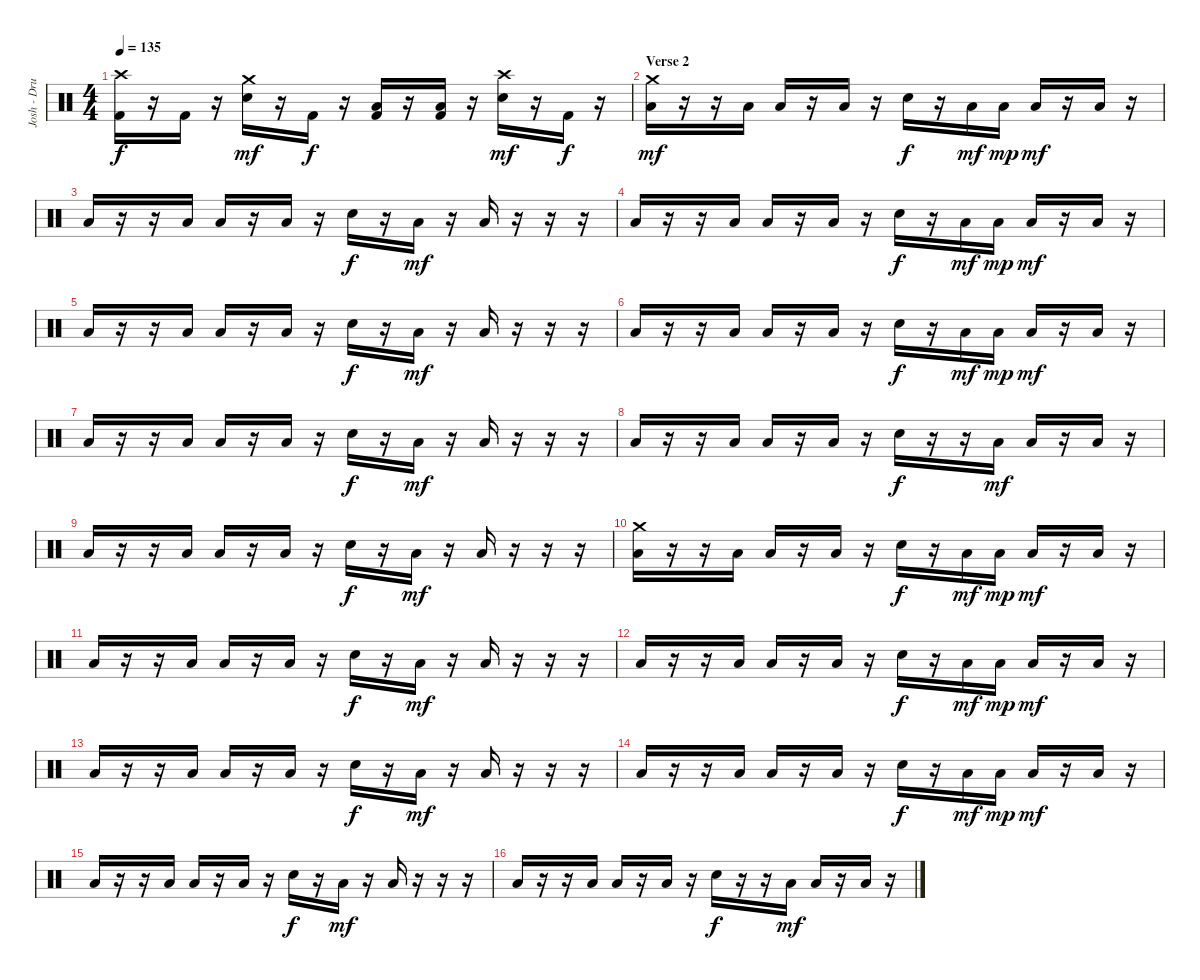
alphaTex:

\track ("Josh - Drums" "Josh - Dru") {instrument percussion}
\staff {score}
\articulation defaults
\ts (4 4)
\tempo 135
\clef neutral
\ks c
("Crash high (hit)" "Kick (hit) 2").16{dy f} r.16 "Kick (hit) 2".16 r.16 ("Crash medium (hit)" "Electric Snare (hit)").16{dy mf} r.16 "Kick (hit) 2".16{dy f} r.16 ("Low Floor Tom (hit)" "Kick (hit) 2").16 r.16 ("Low Floor Tom (hit)" "Kick (hit) 2").16 r.16 ("Crash high (hit)" "Electric Snare (hit)").16{dy mf} r.16 "Kick (hit) 2".16{dy f} r.16 |
\section ("" "Verse 2")
("Crash medium (hit)" "Low Floor Tom (hit)").16{dy mf} r.16 r.16 "Low Floor Tom (hit)".16 "Low Floor Tom (hit)".16 r.16 "Low Floor Tom (hit)".16 r.16 "Electric Snare (hit)".16{dy f} r.16 "Low Floor Tom (hit)".16{dy mf} "Low Floor Tom (hit)".16{dy mp} "Low Floor Tom (hit)".16{dy mf} r.16 "Low Floor Tom (hit)".16 r.16 |
"Low Floor Tom (hit)".16 r.16 r.16 "Low Floor Tom (hit)".16 "Low Floor Tom (hit)".16 r.16 "Low Floor Tom (hit)".16 r.16 "Electric Snare (hit)".16{dy f} r.16 "Low Floor Tom (hit)".16{dy mf} r.16 "Low Floor Tom (hit)".16 r.16 r.16 r.16 |
"Low Floor Tom (hit)".16 r.16 r.16 "Low Floor Tom (hit)".16 "Low Floor Tom (hit)".16 r.16 "Low Floor Tom (hit)".16 r.16 "Electric Snare (hit)".16{dy f} r.16 "Low Floor Tom (hit)".16{dy mf} "Low Floor Tom (hit)".16{dy mp} "Low Floor Tom (hit)".16{dy mf} r.16 "Low Floor Tom (hit)".16 r.16 |
"Low Floor Tom (hit)".16 r.16 r.16 "Low Floor Tom (hit)".16 "Low Floor Tom (hit)".16 r.16 "Low Floor Tom (hit)".16 r.16 "Electric Snare (hit)".16{dy f} r.16 "Low Floor Tom (hit)".16{dy mf} r.16 "Low Floor Tom (hit)".16 r.16 r.16 r.16 |
"Low Floor Tom (hit)".16 r.16 r.16 "Low Floor Tom (hit)".16 "Low Floor Tom (hit)".16 r.16 "Low Floor Tom (hit)".16 r.16 "Electric Snare (hit)".16{dy f} r.16 "Low Floor Tom (hit)".16{dy mf} "Low Floor Tom (hit)".16{dy mp} "Low Floor Tom (hit)".16{dy mf} r.16 "Low Floor Tom (hit)".16 r.16 |
"Low Floor Tom (hit)".16 r.16 r.16 "Low Floor Tom (hit)".16 "Low Floor Tom (hit)".16 r.16 "Low Floor Tom (hit)".16 r.16 "Electric Snare (hit)".16{dy f} r.16 "Low Floor Tom (hit)".16{dy mf} r.16 "Low Floor Tom (hit)".16 r.16 r.16 r.16 |
"Low Floor Tom (hit)".16 r.16 r.16 "Low Floor Tom (hit)".16 "Low Floor Tom (hit)".16 r.16 "Low Floor Tom (hit)".16 r.16 "Electric Snare (hit)".16{dy f} r.16 r.16 "Low Floor Tom (hit)".16{dy mf} "Low Floor Tom (hit)".16 r.16 "Low Floor Tom (hit)".16 r.16 |
"Low Floor Tom (hit)".16 r.16 r.16 "Low Floor Tom (hit)".16 "Low Floor Tom (hit)".16 r.16 "Low Floor Tom (hit)".16 r.16 "Electric Snare (hit)".16{dy f} r.16 "Low Floor Tom (hit)".16{dy mf} r.16 "Low Floor Tom (hit)".16 r.16 r.16 r.16 |
("Crash medium (hit)" "Low Floor Tom (hit)").16 r.16 r.16 "Low Floor Tom (hit)".16 "Low Floor Tom (hit)".16 r.16 "Low Floor Tom (hit)".16 r.16 "Electric Snare (hit)".16{dy f} r.16 "Low Floor Tom (hit)".16{dy mf} "Low Floor Tom (hit)".16{dy mp} "Low Floor Tom (hit)".16{dy mf} r.16 "Low Floor Tom (hit)".16 r.16 |
"Low Floor Tom (hit)".16 r.16 r.16 "Low Floor Tom (hit)".16 "Low Floor Tom (hit)".16 r.16 "Low Floor Tom (hit)".16 r.16 "Electric Snare (hit)".16{dy f} r.16 "Low Floor Tom (hit)".16{dy mf} r.16 "Low Floor Tom (hit)".16 r.16 r.16 r.16 |
"Low Floor Tom (hit)".16 r.16 r.16 "Low Floor Tom (hit)".16 "Low Floor Tom (hit)".16 r.16 "Low Floor Tom (hit)".16 r.16 "Electric Snare (hit)".16{dy f} r.16 "Low Floor Tom (hit)".16{dy mf} "Low Floor Tom (hit)".16{dy mp} "Low Floor Tom (hit)".16{dy mf} r.16 "Low Floor Tom (hit)".16 r.16 |
"Low Floor Tom (hit)".16 r.16 r.16 "Low Floor Tom (hit)".16 "Low Floor Tom (hit)".16 r.16 "Low Floor Tom (hit)".16 r.16 "Electric Snare (hit)".16{dy f} r.16 "Low Floor Tom (hit)".16{dy mf} r.16 "Low Floor Tom (hit)".16 r.16 r.16 r.16 |
"Low Floor Tom (hit)".16 r.16 r.16 "Low Floor Tom (hit)".16 "Low Floor Tom (hit)".16 r.16 "Low Floor Tom (hit)".16 r.16 "Electric Snare (hit)".16{dy f} r.16 "Low Floor Tom (hit)".16{dy mf} "Low Floor Tom (hit)".16{dy mp} "Low Floor Tom (hit)".16{dy mf} r.16 "Low Floor Tom (hit)".16 r.16 |
"Low Floor Tom (hit)".16 r.16 r.16 "Low Floor Tom (hit)".16 "Low Floor Tom (hit)".16 r.16 "Low Floor Tom (hit)".16 r.16 "Electric Snare (hit)".16{dy f} r.16 "Low Floor Tom (hit)".16{dy mf} r.16 "Low Floor Tom (hit)".16 r.16 r.16 r.16 |
"Low Floor Tom (hit)".16 r.16 r.16 "Low Floor Tom (hit)".16 "Low Floor Tom (hit)".16 r.16 "Low Floor Tom (hit)".16 r.16 "Electric Snare (hit)".16{dy f} r.16 r.16 "Low Floor Tom (hit)".16{dy mf} "Low Floor Tom (hit)".16 r.16 "Low Floor Tom (hit)".16 r.16
